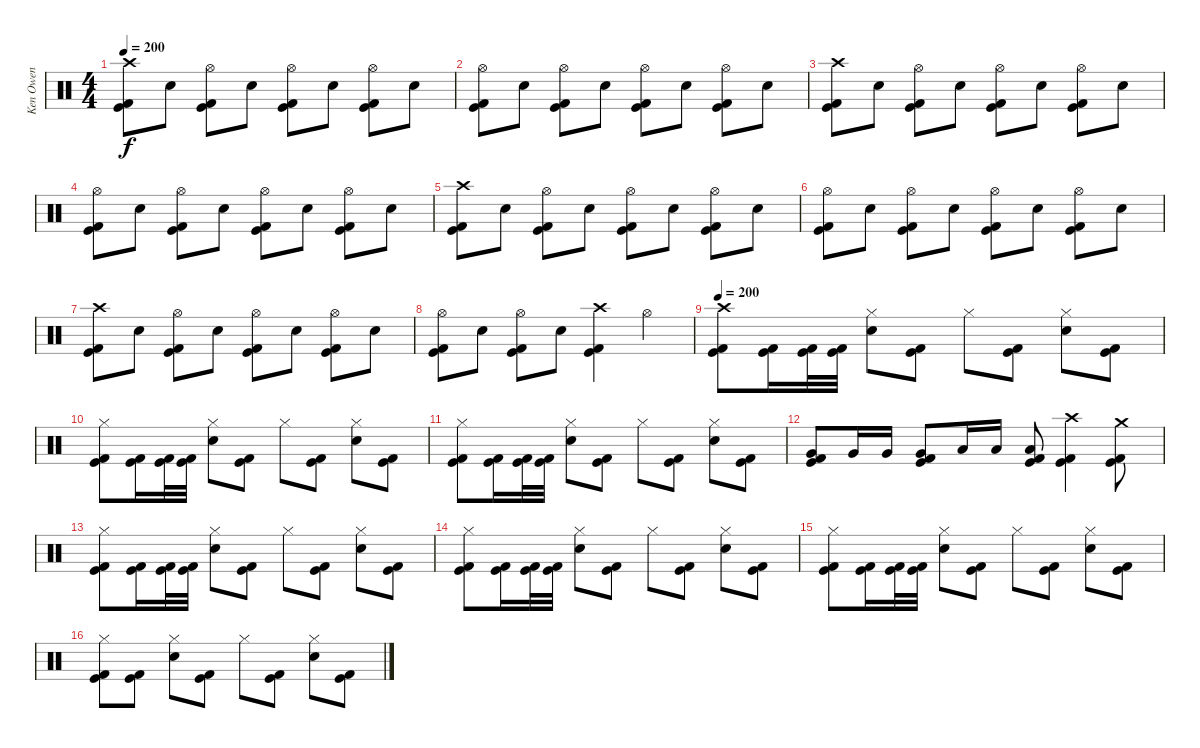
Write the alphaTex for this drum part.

\track ("Ken Owen" "Ken Owen") {instrument percussion}
\staff {score}
\articulation defaults
\ts (4 4)
\tempo 200
\clef neutral
\ks c
("Crash high (hit)" "Kick (hit)" "Kick (hit) 2").8{dy f} "Electric Snare (hit)".8 ("Hi-Hat (open)" "Kick (hit)" "Kick (hit) 2").8 "Electric Snare (hit)".8 ("Hi-Hat (open)" "Kick (hit)" "Kick (hit) 2").8 "Electric Snare (hit)".8 ("Hi-Hat (open)" "Kick (hit)" "Kick (hit) 2").8 "Electric Snare (hit)".8 |
("Hi-Hat (open)" "Kick (hit)" "Kick (hit) 2").8 "Electric Snare (hit)".8 ("Hi-Hat (open)" "Kick (hit)" "Kick (hit) 2").8 "Electric Snare (hit)".8 ("Hi-Hat (open)" "Kick (hit)" "Kick (hit) 2").8 "Electric Snare (hit)".8 ("Hi-Hat (open)" "Kick (hit)" "Kick (hit) 2").8 "Electric Snare (hit)".8 |
("Crash high (hit)" "Kick (hit)" "Kick (hit) 2").8 "Electric Snare (hit)".8 ("Hi-Hat (open)" "Kick (hit)" "Kick (hit) 2").8 "Electric Snare (hit)".8 ("Hi-Hat (open)" "Kick (hit)" "Kick (hit) 2").8 "Electric Snare (hit)".8 ("Hi-Hat (open)" "Kick (hit)" "Kick (hit) 2").8 "Electric Snare (hit)".8 |
("Hi-Hat (open)" "Kick (hit)" "Kick (hit) 2").8 "Electric Snare (hit)".8 ("Hi-Hat (open)" "Kick (hit)" "Kick (hit) 2").8 "Electric Snare (hit)".8 ("Hi-Hat (open)" "Kick (hit)" "Kick (hit) 2").8 "Electric Snare (hit)".8 ("Hi-Hat (open)" "Kick (hit)" "Kick (hit) 2").8 "Electric Snare (hit)".8 |
("Crash high (hit)" "Kick (hit)" "Kick (hit) 2").8 "Electric Snare (hit)".8 ("Hi-Hat (open)" "Kick (hit)" "Kick (hit) 2").8 "Electric Snare (hit)".8 ("Hi-Hat (open)" "Kick (hit)" "Kick (hit) 2").8 "Electric Snare (hit)".8 ("Hi-Hat (open)" "Kick (hit)" "Kick (hit) 2").8 "Electric Snare (hit)".8 |
("Hi-Hat (open)" "Kick (hit)" "Kick (hit) 2").8 "Electric Snare (hit)".8 ("Hi-Hat (open)" "Kick (hit)" "Kick (hit) 2").8 "Electric Snare (hit)".8 ("Hi-Hat (open)" "Kick (hit)" "Kick (hit) 2").8 "Electric Snare (hit)".8 ("Hi-Hat (open)" "Kick (hit)" "Kick (hit) 2").8 "Electric Snare (hit)".8 |
("Crash high (hit)" "Kick (hit)" "Kick (hit) 2").8 "Electric Snare (hit)".8 ("Hi-Hat (open)" "Kick (hit)" "Kick (hit) 2").8 "Electric Snare (hit)".8 ("Hi-Hat (open)" "Kick (hit)" "Kick (hit) 2").8 "Electric Snare (hit)".8 ("Hi-Hat (open)" "Kick (hit)" "Kick (hit) 2").8 "Electric Snare (hit)".8 |
("Hi-Hat (open)" "Kick (hit)" "Kick (hit) 2").8 "Electric Snare (hit)".8 ("Hi-Hat (open)" "Kick (hit)" "Kick (hit) 2").8 "Electric Snare (hit)".8 ("Crash high (hit)" "Kick (hit)" "Kick (hit) 2").4 "Hi-Hat (open)".4 |
\tempo 200
("Crash high (hit)" "Kick (hit)" "Kick (hit) 2").8 ("Kick (hit)" "Kick (hit) 2").16 ("Kick (hit)" "Kick (hit) 2").32 ("Kick (hit)" "Kick (hit) 2").32 ("Hi-Hat (closed)" "Electric Snare (hit)").8 ("Kick (hit)" "Kick (hit) 2").8 "Hi-Hat (closed)".8 ("Kick (hit)" "Kick (hit) 2").8 ("Hi-Hat (closed)" "Electric Snare (hit)").8 ("Kick (hit)" "Kick (hit) 2").8 |
("Hi-Hat (closed)" "Kick (hit)" "Kick (hit) 2").8 ("Kick (hit)" "Kick (hit) 2").16 ("Kick (hit)" "Kick (hit) 2").32 ("Kick (hit)" "Kick (hit) 2").32 ("Hi-Hat (closed)" "Electric Snare (hit)").8 ("Kick (hit)" "Kick (hit) 2").8 "Hi-Hat (closed)".8 ("Kick (hit)" "Kick (hit) 2").8 ("Hi-Hat (closed)" "Electric Snare (hit)").8 ("Kick (hit) 2" "Kick (hit)").8 |
("Hi-Hat (closed)" "Kick (hit)" "Kick (hit) 2").8 ("Kick (hit)" "Kick (hit) 2").16 ("Kick (hit)" "Kick (hit) 2").32 ("Kick (hit)" "Kick (hit) 2").32 ("Hi-Hat (closed)" "Electric Snare (hit)").8 ("Kick (hit)" "Kick (hit) 2").8 "Hi-Hat (closed)".8 ("Kick (hit)" "Kick (hit) 2").8 ("Hi-Hat (closed)" "Electric Snare (hit)").8 ("Kick (hit) 2" "Kick (hit)").8 |
("Very Low Tom (hit)" "Kick (hit)" "Kick (hit) 2").8 "Very Low Tom (hit)".16 "Very Low Tom (hit)".16 ("Very Low Tom (hit)" "Kick (hit)" "Kick (hit) 2").8 "Low Floor Tom (hit)".16 "Low Floor Tom (hit)".16 ("Low Floor Tom (hit)" "Kick (hit)" "Kick (hit) 2").8 ("Crash high (hit)" "Kick (hit)" "Kick (hit) 2").4 ("Crash medium (hit)" "Kick (hit)" "Kick (hit) 2").8 |
("Hi-Hat (closed)" "Kick (hit)" "Kick (hit) 2").8 ("Kick (hit)" "Kick (hit) 2").16 ("Kick (hit)" "Kick (hit) 2").32 ("Kick (hit)" "Kick (hit) 2").32 ("Hi-Hat (closed)" "Electric Snare (hit)").8 ("Kick (hit)" "Kick (hit) 2").8 "Hi-Hat (closed)".8 ("Kick (hit)" "Kick (hit) 2").8 ("Hi-Hat (closed)" "Electric Snare (hit)").8 ("Kick (hit)" "Kick (hit) 2").8 |
("Hi-Hat (closed)" "Kick (hit)" "Kick (hit) 2").8 ("Kick (hit)" "Kick (hit) 2").16 ("Kick (hit)" "Kick (hit) 2").32 ("Kick (hit)" "Kick (hit) 2").32 ("Hi-Hat (closed)" "Electric Snare (hit)").8 ("Kick (hit)" "Kick (hit) 2").8 "Hi-Hat (closed)".8 ("Kick (hit)" "Kick (hit) 2").8 ("Hi-Hat (closed)" "Electric Snare (hit)").8 ("Kick (hit) 2" "Kick (hit)").8 |
("Hi-Hat (closed)" "Kick (hit)" "Kick (hit) 2").8 ("Kick (hit)" "Kick (hit) 2").16 ("Kick (hit)" "Kick (hit) 2").32 ("Kick (hit)" "Kick (hit) 2").32 ("Hi-Hat (closed)" "Electric Snare (hit)").8 ("Kick (hit)" "Kick (hit) 2").8 "Hi-Hat (closed)".8 ("Kick (hit)" "Kick (hit) 2").8 ("Hi-Hat (closed)" "Electric Snare (hit)").8 ("Kick (hit) 2" "Kick (hit)").8 |
("Hi-Hat (closed)" "Kick (hit)" "Kick (hit) 2").8 ("Kick (hit)" "Kick (hit) 2").8 ("Hi-Hat (closed)" "Electric Snare (hit)").8 ("Kick (hit)" "Kick (hit) 2").8 "Hi-Hat (closed)".8 ("Kick (hit)" "Kick (hit) 2").8 ("Hi-Hat (closed)" "Electric Snare (hit)").8 ("Kick (hit) 2" "Kick (hit)").8
